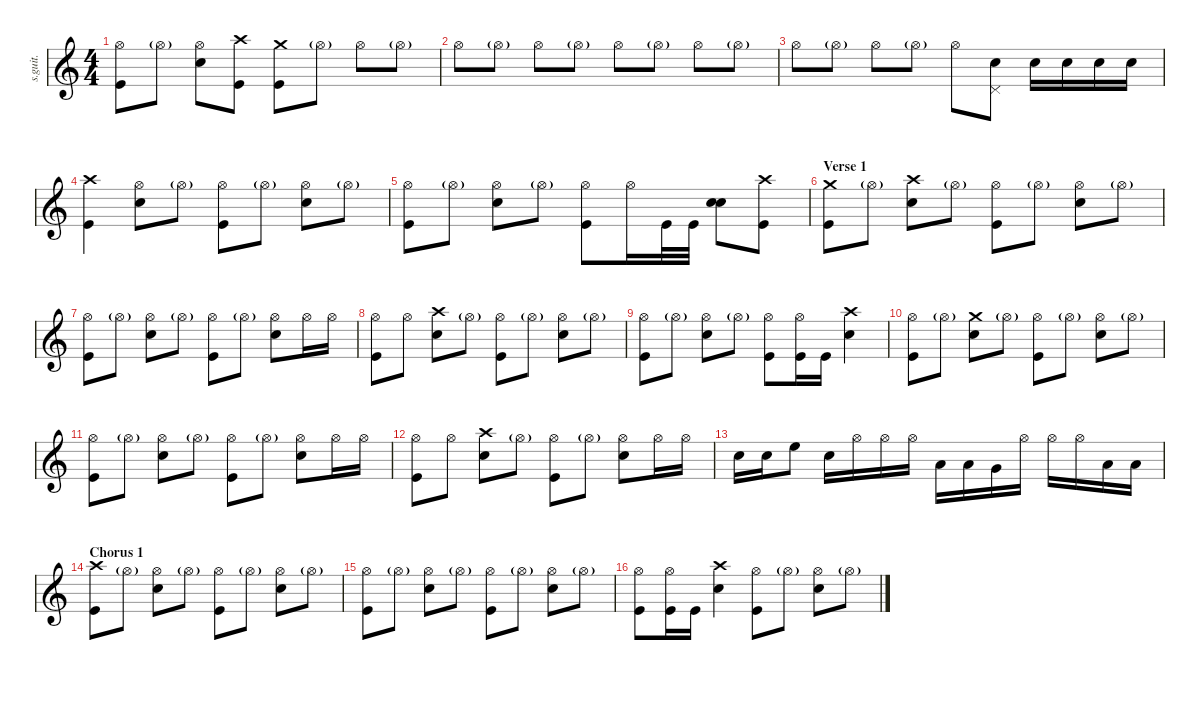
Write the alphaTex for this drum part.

\defaultSystemsLayout 4
\hideDynamics
\bracketExtendMode nobrackets
\track ("Lars Ulrich" "s.guit.") {instrument percussion}
\staff {score}
\articulation defaults
\ts (4 4)
\tempo (88 hide)
\clef g2
\ks c
("Hi-Hat (open)" "Kick (hit)").8{lyrics (0 "") lyrics (1 "") lyrics (2 "") lyrics (3 "") lyrics (4 "") dy f} "Hi-Hat (open)"{g}.8{lyrics (0 "") lyrics (1 "") lyrics (2 "") lyrics (3 "") lyrics (4 "") dy p} ("Hi-Hat (open)" "Snare (hit) 2").8{lyrics (0 "") lyrics (1 "") lyrics (2 "") lyrics (3 "") lyrics (4 "") dy f} ("Crash high (hit)" "Kick (hit)").8{lyrics (0 "") lyrics (1 "") lyrics (2 "") lyrics (3 "") lyrics (4 "")} ("Crash medium (hit)" "Kick (hit)").8{lyrics (0 "") lyrics (1 "") lyrics (2 "") lyrics (3 "") lyrics (4 "")} "Hi-Hat (open)"{g}.8{lyrics (0 "") lyrics (1 "") lyrics (2 "") lyrics (3 "") lyrics (4 "") dy p} "Hi-Hat (open)".8{lyrics (0 "") lyrics (1 "") lyrics (2 "") lyrics (3 "") lyrics (4 "") dy f} "Hi-Hat (open)"{g}.8{lyrics (0 "") lyrics (1 "") lyrics (2 "") lyrics (3 "") lyrics (4 "") dy p} |
\tempo (89 hide)
"Hi-Hat (open)".8{lyrics (0 "") lyrics (1 "") lyrics (2 "") lyrics (3 "") lyrics (4 "") dy f} "Hi-Hat (open)"{g}.8{lyrics (0 "") lyrics (1 "") lyrics (2 "") lyrics (3 "") lyrics (4 "") dy p} "Hi-Hat (open)".8{lyrics (0 "") lyrics (1 "") lyrics (2 "") lyrics (3 "") lyrics (4 "") dy f} "Hi-Hat (open)"{g}.8{lyrics (0 "") lyrics (1 "") lyrics (2 "") lyrics (3 "") lyrics (4 "") dy p} "Hi-Hat (open)".8{lyrics (0 "") lyrics (1 "") lyrics (2 "") lyrics (3 "") lyrics (4 "") dy f} "Hi-Hat (open)"{g}.8{lyrics (0 "") lyrics (1 "") lyrics (2 "") lyrics (3 "") lyrics (4 "") dy p} "Hi-Hat (open)".8{lyrics (0 "") lyrics (1 "") lyrics (2 "") lyrics (3 "") lyrics (4 "") dy f} "Hi-Hat (open)"{g}.8{lyrics (0 "") lyrics (1 "") lyrics (2 "") lyrics (3 "") lyrics (4 "") dy p} |
\tempo (91 hide)
"Hi-Hat (open)".8{lyrics (0 "") lyrics (1 "") lyrics (2 "") lyrics (3 "") lyrics (4 "") dy f} "Hi-Hat (open)"{g}.8{lyrics (0 "") lyrics (1 "") lyrics (2 "") lyrics (3 "") lyrics (4 "") dy p} "Hi-Hat (open)".8{lyrics (0 "") lyrics (1 "") lyrics (2 "") lyrics (3 "") lyrics (4 "") dy f} "Hi-Hat (open)"{g}.8{lyrics (0 "") lyrics (1 "") lyrics (2 "") lyrics (3 "") lyrics (4 "") dy p} "Hi-Hat (open)".8{lyrics (0 "") lyrics (1 "") lyrics (2 "") lyrics (3 "") lyrics (4 "") dy f} ("Pedal Hi-Hat (hit)" "Snare (hit) 2").8{lyrics (0 "") lyrics (1 "") lyrics (2 "") lyrics (3 "") lyrics (4 "")} "Snare (hit) 2".16{lyrics (0 "") lyrics (1 "") lyrics (2 "") lyrics (3 "") lyrics (4 "")} "Snare (hit) 2".16{lyrics (0 "") lyrics (1 "") lyrics (2 "") lyrics (3 "") lyrics (4 "")} "Snare (hit) 2".16{lyrics (0 "") lyrics (1 "") lyrics (2 "") lyrics (3 "") lyrics (4 "")} "Snare (hit) 2".16{lyrics (0 "") lyrics (1 "") lyrics (2 "") lyrics (3 "") lyrics (4 "")} |
\tempo (88 hide)
("Crash high (hit)" "Kick (hit)").4{lyrics (0 "") lyrics (1 "") lyrics (2 "") lyrics (3 "") lyrics (4 "")} ("Hi-Hat (open)" "Snare (hit) 2").8{lyrics (0 "") lyrics (1 "") lyrics (2 "") lyrics (3 "") lyrics (4 "")} "Hi-Hat (open)"{g}.8{lyrics (0 "") lyrics (1 "") lyrics (2 "") lyrics (3 "") lyrics (4 "") dy p} ("Hi-Hat (open)" "Kick (hit)").8{lyrics (0 "") lyrics (1 "") lyrics (2 "") lyrics (3 "") lyrics (4 "") dy f} "Hi-Hat (open)"{g}.8{lyrics (0 "") lyrics (1 "") lyrics (2 "") lyrics (3 "") lyrics (4 "") dy p} ("Hi-Hat (open)" "Snare (hit) 2").8{lyrics (0 "") lyrics (1 "") lyrics (2 "") lyrics (3 "") lyrics (4 "") dy f} "Hi-Hat (open)"{g}.8{lyrics (0 "") lyrics (1 "") lyrics (2 "") lyrics (3 "") lyrics (4 "") dy p} |
\tempo (90 hide)
("Hi-Hat (open)" "Kick (hit)").8{lyrics (0 "") lyrics (1 "") lyrics (2 "") lyrics (3 "") lyrics (4 "") dy f} "Hi-Hat (open)"{g}.8{lyrics (0 "") lyrics (1 "") lyrics (2 "") lyrics (3 "") lyrics (4 "") dy p} ("Hi-Hat (open)" "Snare (hit) 2").8{lyrics (0 "") lyrics (1 "") lyrics (2 "") lyrics (3 "") lyrics (4 "") dy f} "Hi-Hat (open)"{g}.8{lyrics (0 "") lyrics (1 "") lyrics (2 "") lyrics (3 "") lyrics (4 "") dy p} ("Hi-Hat (open)" "Kick (hit)").8{lyrics (0 "") lyrics (1 "") lyrics (2 "") lyrics (3 "") lyrics (4 "") dy f} "Hi-Hat (open)".16{lyrics (0 "") lyrics (1 "") lyrics (2 "") lyrics (3 "") lyrics (4 "")} "Kick (hit)".32{lyrics (0 "") lyrics (1 "") lyrics (2 "") lyrics (3 "") lyrics (4 "")} "Kick (hit)".32{lyrics (0 "") lyrics (1 "") lyrics (2 "") lyrics (3 "") lyrics (4 "")} ("Snare (hit) 2" "Snare (hit) 2").8{lyrics (0 "") lyrics (1 "") lyrics (2 "") lyrics (3 "") lyrics (4 "")} ("Crash high (hit)" "Kick (hit)").8{lyrics (0 "") lyrics (1 "") lyrics (2 "") lyrics (3 "") lyrics (4 "")} |
\section ("" "Verse 1")
\tempo (88 hide)
("Crash medium (hit)" "Kick (hit)").8{lyrics (0 "") lyrics (1 "") lyrics (2 "") lyrics (3 "") lyrics (4 "")} "Hi-Hat (open)"{g}.8{lyrics (0 "") lyrics (1 "") lyrics (2 "") lyrics (3 "") lyrics (4 "") dy p} ("Crash high (hit)" "Snare (hit) 2").8{lyrics (0 "") lyrics (1 "") lyrics (2 "") lyrics (3 "") lyrics (4 "") dy f} "Hi-Hat (open)"{g}.8{lyrics (0 "") lyrics (1 "") lyrics (2 "") lyrics (3 "") lyrics (4 "") dy p} ("Hi-Hat (open)" "Kick (hit)").8{lyrics (0 "") lyrics (1 "") lyrics (2 "") lyrics (3 "") lyrics (4 "") dy f} "Hi-Hat (open)"{g}.8{lyrics (0 "") lyrics (1 "") lyrics (2 "") lyrics (3 "") lyrics (4 "") dy p} ("Hi-Hat (open)" "Snare (hit) 2").8{lyrics (0 "") lyrics (1 "") lyrics (2 "") lyrics (3 "") lyrics (4 "") dy f} "Hi-Hat (open)"{g}.8{lyrics (0 "") lyrics (1 "") lyrics (2 "") lyrics (3 "") lyrics (4 "") dy p} |
\tempo (89 hide)
("Hi-Hat (open)" "Kick (hit)").8{lyrics (0 "") lyrics (1 "") lyrics (2 "") lyrics (3 "") lyrics (4 "") dy f} "Hi-Hat (open)"{g}.8{lyrics (0 "") lyrics (1 "") lyrics (2 "") lyrics (3 "") lyrics (4 "") dy p} ("Hi-Hat (open)" "Snare (hit) 2").8{lyrics (0 "") lyrics (1 "") lyrics (2 "") lyrics (3 "") lyrics (4 "") dy f} "Hi-Hat (open)"{g}.8{lyrics (0 "") lyrics (1 "") lyrics (2 "") lyrics (3 "") lyrics (4 "") dy p} ("Hi-Hat (open)" "Kick (hit)").8{lyrics (0 "") lyrics (1 "") lyrics (2 "") lyrics (3 "") lyrics (4 "") dy f} "Hi-Hat (open)"{g}.8{lyrics (0 "") lyrics (1 "") lyrics (2 "") lyrics (3 "") lyrics (4 "") dy p} ("Hi-Hat (open)" "Snare (hit) 2").8{lyrics (0 "") lyrics (1 "") lyrics (2 "") lyrics (3 "") lyrics (4 "") dy f} "Hi-Hat (open)".16{lyrics (0 "") lyrics (1 "") lyrics (2 "") lyrics (3 "") lyrics (4 "")} "Hi-Hat (open)".16{lyrics (0 "") lyrics (1 "") lyrics (2 "") lyrics (3 "") lyrics (4 "")} |
\tempo (90 hide)
("Hi-Hat (open)" "Kick (hit)").8{lyrics (0 "") lyrics (1 "") lyrics (2 "") lyrics (3 "") lyrics (4 "")} "Hi-Hat (open)".8{lyrics (0 "") lyrics (1 "") lyrics (2 "") lyrics (3 "") lyrics (4 "")} ("Crash high (hit)" "Snare (hit) 2").8{lyrics (0 "") lyrics (1 "") lyrics (2 "") lyrics (3 "") lyrics (4 "")} "Hi-Hat (open)"{g}.8{lyrics (0 "") lyrics (1 "") lyrics (2 "") lyrics (3 "") lyrics (4 "") dy p} ("Hi-Hat (open)" "Kick (hit)").8{lyrics (0 "") lyrics (1 "") lyrics (2 "") lyrics (3 "") lyrics (4 "") dy f} "Hi-Hat (open)"{g}.8{lyrics (0 "") lyrics (1 "") lyrics (2 "") lyrics (3 "") lyrics (4 "") dy p} ("Hi-Hat (open)" "Snare (hit) 2").8{lyrics (0 "") lyrics (1 "") lyrics (2 "") lyrics (3 "") lyrics (4 "") dy f} "Hi-Hat (open)"{g}.8{lyrics (0 "") lyrics (1 "") lyrics (2 "") lyrics (3 "") lyrics (4 "") dy p} |
\tempo (89 hide)
("Hi-Hat (open)" "Kick (hit)").8{lyrics (0 "") lyrics (1 "") lyrics (2 "") lyrics (3 "") lyrics (4 "") dy f} "Hi-Hat (open)"{g}.8{lyrics (0 "") lyrics (1 "") lyrics (2 "") lyrics (3 "") lyrics (4 "") dy p} ("Hi-Hat (open)" "Snare (hit) 2").8{lyrics (0 "") lyrics (1 "") lyrics (2 "") lyrics (3 "") lyrics (4 "") dy f} "Hi-Hat (open)"{g}.8{lyrics (0 "") lyrics (1 "") lyrics (2 "") lyrics (3 "") lyrics (4 "") dy p} ("Hi-Hat (open)" "Kick (hit)").8{lyrics (0 "") lyrics (1 "") lyrics (2 "") lyrics (3 "") lyrics (4 "") dy f} ("Hi-Hat (open)" "Kick (hit)").16{lyrics (0 "") lyrics (1 "") lyrics (2 "") lyrics (3 "") lyrics (4 "")} "Kick (hit)".16{lyrics (0 "") lyrics (1 "") lyrics (2 "") lyrics (3 "") lyrics (4 "")} ("Crash high (hit)" "Snare (hit) 2").4{lyrics (0 "") lyrics (1 "") lyrics (2 "") lyrics (3 "") lyrics (4 "")} |
\tempo (90 hide)
("Hi-Hat (open)" "Kick (hit)").8{lyrics (0 "") lyrics (1 "") lyrics (2 "") lyrics (3 "") lyrics (4 "")} "Hi-Hat (open)"{g}.8{lyrics (0 "") lyrics (1 "") lyrics (2 "") lyrics (3 "") lyrics (4 "") dy p} ("Crash medium (hit)" "Snare (hit) 2").8{lyrics (0 "") lyrics (1 "") lyrics (2 "") lyrics (3 "") lyrics (4 "") dy f} "Hi-Hat (open)"{g}.8{lyrics (0 "") lyrics (1 "") lyrics (2 "") lyrics (3 "") lyrics (4 "") dy p} ("Hi-Hat (open)" "Kick (hit)").8{lyrics (0 "") lyrics (1 "") lyrics (2 "") lyrics (3 "") lyrics (4 "") dy f} "Hi-Hat (open)"{g}.8{lyrics (0 "") lyrics (1 "") lyrics (2 "") lyrics (3 "") lyrics (4 "") dy p} ("Hi-Hat (open)" "Snare (hit) 2").8{lyrics (0 "") lyrics (1 "") lyrics (2 "") lyrics (3 "") lyrics (4 "") dy f} "Hi-Hat (open)"{g}.8{lyrics (0 "") lyrics (1 "") lyrics (2 "") lyrics (3 "") lyrics (4 "") dy p} |
\tempo (89 hide)
("Hi-Hat (open)" "Kick (hit)").8{lyrics (0 "") lyrics (1 "") lyrics (2 "") lyrics (3 "") lyrics (4 "") dy f} "Hi-Hat (open)"{g}.8{lyrics (0 "") lyrics (1 "") lyrics (2 "") lyrics (3 "") lyrics (4 "") dy p} ("Hi-Hat (open)" "Snare (hit) 2").8{lyrics (0 "") lyrics (1 "") lyrics (2 "") lyrics (3 "") lyrics (4 "") dy f} "Hi-Hat (open)"{g}.8{lyrics (0 "") lyrics (1 "") lyrics (2 "") lyrics (3 "") lyrics (4 "") dy p} ("Hi-Hat (open)" "Kick (hit)").8{lyrics (0 "") lyrics (1 "") lyrics (2 "") lyrics (3 "") lyrics (4 "") dy f} "Hi-Hat (open)"{g}.8{lyrics (0 "") lyrics (1 "") lyrics (2 "") lyrics (3 "") lyrics (4 "") dy p} ("Hi-Hat (open)" "Snare (hit) 2").8{lyrics (0 "") lyrics (1 "") lyrics (2 "") lyrics (3 "") lyrics (4 "") dy f} "Hi-Hat (open)".16{lyrics (0 "") lyrics (1 "") lyrics (2 "") lyrics (3 "") lyrics (4 "")} "Hi-Hat (open)".16{lyrics (0 "") lyrics (1 "") lyrics (2 "") lyrics (3 "") lyrics (4 "")} |
\tempo (88 hide)
("Hi-Hat (open)" "Kick (hit)").8{lyrics (0 "") lyrics (1 "") lyrics (2 "") lyrics (3 "") lyrics (4 "")} "Hi-Hat (open)".8{lyrics (0 "") lyrics (1 "") lyrics (2 "") lyrics (3 "") lyrics (4 "")} ("Crash high (hit)" "Snare (hit) 2").8{lyrics (0 "") lyrics (1 "") lyrics (2 "") lyrics (3 "") lyrics (4 "")} "Hi-Hat (open)"{g}.8{lyrics (0 "") lyrics (1 "") lyrics (2 "") lyrics (3 "") lyrics (4 "") dy p} ("Hi-Hat (open)" "Kick (hit)").8{lyrics (0 "") lyrics (1 "") lyrics (2 "") lyrics (3 "") lyrics (4 "") dy f} "Hi-Hat (open)"{g}.8{lyrics (0 "") lyrics (1 "") lyrics (2 "") lyrics (3 "") lyrics (4 "") dy p} ("Hi-Hat (open)" "Snare (hit) 2").8{lyrics (0 "") lyrics (1 "") lyrics (2 "") lyrics (3 "") lyrics (4 "") dy f} "Hi-Hat (open)".16{lyrics (0 "") lyrics (1 "") lyrics (2 "") lyrics (3 "") lyrics (4 "")} "Hi-Hat (open)".16{lyrics (0 "") lyrics (1 "") lyrics (2 "") lyrics (3 "") lyrics (4 "")} |
\tempo (90 hide)
"Snare (hit) 2".16{lyrics (0 "") lyrics (1 "") lyrics (2 "") lyrics (3 "") lyrics (4 "")} "Snare (hit) 2".16{lyrics (0 "") lyrics (1 "") lyrics (2 "") lyrics (3 "") lyrics (4 "")} "High Floor Tom (hit)".8{lyrics (0 "") lyrics (1 "") lyrics (2 "") lyrics (3 "") lyrics (4 "") dy ff} "Snare (hit) 2".16{lyrics (0 "") lyrics (1 "") lyrics (2 "") lyrics (3 "") lyrics (4 "") dy f} "Hi-Hat (open)".16{lyrics (0 "") lyrics (1 "") lyrics (2 "") lyrics (3 "") lyrics (4 "")} "Hi-Hat (open)".16{lyrics (0 "") lyrics (1 "") lyrics (2 "") lyrics (3 "") lyrics (4 "")} "Hi-Hat (open)".16{lyrics (0 "") lyrics (1 "") lyrics (2 "") lyrics (3 "") lyrics (4 "")} "Low Tom (hit)".16{lyrics (0 "") lyrics (1 "") lyrics (2 "") lyrics (3 "") lyrics (4 "") dy ff} "Low Tom (hit)".16{lyrics (0 "") lyrics (1 "") lyrics (2 "") lyrics (3 "") lyrics (4 "")} "Very Low Tom (hit)".16{lyrics (0 "") lyrics (1 "") lyrics (2 "") lyrics (3 "") lyrics (4 "")} "Hi-Hat (open)".16{lyrics (0 "") lyrics (1 "") lyrics (2 "") lyrics (3 "") lyrics (4 "") dy f} "Hi-Hat (open)".16{lyrics (0 "") lyrics (1 "") lyrics (2 "") lyrics (3 "") lyrics (4 "")} "Hi-Hat (open)".16{lyrics (0 "") lyrics (1 "") lyrics (2 "") lyrics (3 "") lyrics (4 "")} "Low Floor Tom (hit)".16{lyrics (0 "") lyrics (1 "") lyrics (2 "") lyrics (3 "") lyrics (4 "") dy ff} "Low Floor Tom (hit)".16{lyrics (0 "") lyrics (1 "") lyrics (2 "") lyrics (3 "") lyrics (4 "")} |
\section ("" "Chorus 1")
\tempo (89 hide)
("Crash high (hit)" "Kick (hit)").8{lyrics (0 "") lyrics (1 "") lyrics (2 "") lyrics (3 "") lyrics (4 "") dy f} "Hi-Hat (open)"{g}.8{lyrics (0 "") lyrics (1 "") lyrics (2 "") lyrics (3 "") lyrics (4 "") dy p} ("Hi-Hat (open)" "Snare (hit) 2").8{lyrics (0 "") lyrics (1 "") lyrics (2 "") lyrics (3 "") lyrics (4 "") dy f} "Hi-Hat (open)"{g}.8{lyrics (0 "") lyrics (1 "") lyrics (2 "") lyrics (3 "") lyrics (4 "") dy p} ("Hi-Hat (open)" "Kick (hit)").8{lyrics (0 "") lyrics (1 "") lyrics (2 "") lyrics (3 "") lyrics (4 "") dy f} "Hi-Hat (open)"{g}.8{lyrics (0 "") lyrics (1 "") lyrics (2 "") lyrics (3 "") lyrics (4 "") dy p} ("Hi-Hat (open)" "Snare (hit) 2").8{lyrics (0 "") lyrics (1 "") lyrics (2 "") lyrics (3 "") lyrics (4 "") dy f} "Hi-Hat (open)"{g}.8{lyrics (0 "") lyrics (1 "") lyrics (2 "") lyrics (3 "") lyrics (4 "") dy p} |
\tempo (90 hide)
("Hi-Hat (open)" "Kick (hit)").8{lyrics (0 "") lyrics (1 "") lyrics (2 "") lyrics (3 "") lyrics (4 "") dy f} "Hi-Hat (open)"{g}.8{lyrics (0 "") lyrics (1 "") lyrics (2 "") lyrics (3 "") lyrics (4 "") dy p} ("Hi-Hat (open)" "Snare (hit) 2").8{lyrics (0 "") lyrics (1 "") lyrics (2 "") lyrics (3 "") lyrics (4 "") dy f} "Hi-Hat (open)"{g}.8{lyrics (0 "") lyrics (1 "") lyrics (2 "") lyrics (3 "") lyrics (4 "") dy p} ("Hi-Hat (open)" "Kick (hit)").8{lyrics (0 "") lyrics (1 "") lyrics (2 "") lyrics (3 "") lyrics (4 "") dy f} "Hi-Hat (open)"{g}.8{lyrics (0 "") lyrics (1 "") lyrics (2 "") lyrics (3 "") lyrics (4 "") dy p} ("Hi-Hat (open)" "Snare (hit) 2").8{lyrics (0 "") lyrics (1 "") lyrics (2 "") lyrics (3 "") lyrics (4 "") dy f} "Hi-Hat (open)"{g}.8{lyrics (0 "") lyrics (1 "") lyrics (2 "") lyrics (3 "") lyrics (4 "") dy p} |
\tempo (89 hide)
("Hi-Hat (open)" "Kick (hit)").8{lyrics (0 "") lyrics (1 "") lyrics (2 "") lyrics (3 "") lyrics (4 "") dy f} ("Hi-Hat (open)" "Kick (hit)").16{lyrics (0 "") lyrics (1 "") lyrics (2 "") lyrics (3 "") lyrics (4 "")} "Kick (hit)".16{lyrics (0 "") lyrics (1 "") lyrics (2 "") lyrics (3 "") lyrics (4 "")} ("Crash high (hit)" "Snare (hit) 2").4{lyrics (0 "") lyrics (1 "") lyrics (2 "") lyrics (3 "") lyrics (4 "")} ("Hi-Hat (open)" "Kick (hit)").8{lyrics (0 "") lyrics (1 "") lyrics (2 "") lyrics (3 "") lyrics (4 "")} "Hi-Hat (open)"{g}.8{lyrics (0 "") lyrics (1 "") lyrics (2 "") lyrics (3 "") lyrics (4 "") dy p} ("Hi-Hat (open)" "Snare (hit) 2").8{lyrics (0 "") lyrics (1 "") lyrics (2 "") lyrics (3 "") lyrics (4 "") dy f} "Hi-Hat (open)"{g}.8{lyrics (0 "") lyrics (1 "") lyrics (2 "") lyrics (3 "") lyrics (4 "") dy p}
